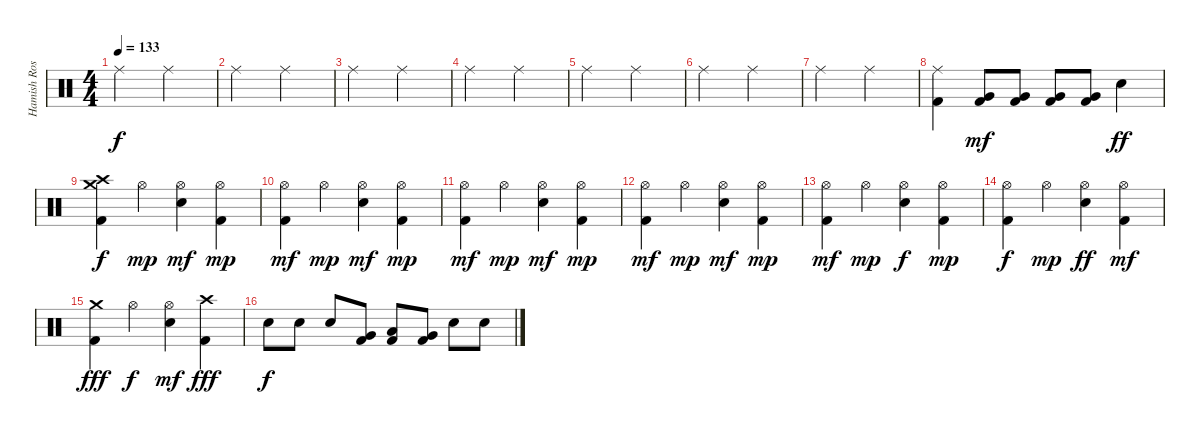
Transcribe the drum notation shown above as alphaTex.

\track ("Hamish Rosser" "Hamish Ros") {instrument percussion}
\staff {score}
\articulation defaults
\ts (4 4)
\tempo 133
\clef neutral
\ks c "Ride (middle)".2{dy f} "Ride (middle)".2
|
"Ride (middle)".2 "Ride (middle)".2 |
"Ride (middle)".2 "Ride (middle)".2 |
"Ride (middle)".2 "Ride (middle)".2 |
"Ride (middle)".2 "Ride (middle)".2 |
"Ride (middle)".2 "Ride (middle)".2 |
"Ride (middle)".2 "Ride (middle)".2 |
("Ride (middle)" "Kick (hit) 2").4 ("Very Low Tom (hit)" "Kick (hit) 2").8{dy mf} ("Very Low Tom (hit)" "Kick (hit) 2").8 ("Very Low Tom (hit)" "Kick (hit) 2").8 ("Very Low Tom (hit)" "Kick (hit) 2").8 "Electric Snare (hit)".4{dy ff} |
("Crash medium (hit)" "Crash high (hit)" "Kick (hit) 2").4{dy f} "Hi-Hat (open)".4{dy mp} ("Hi-Hat (open)" "Electric Snare (hit)").4{dy mf} ("Hi-Hat (open)" "Kick (hit) 2").4{dy mp} |
("Hi-Hat (open)" "Kick (hit) 2").4{dy mf} "Hi-Hat (open)".4{dy mp} ("Hi-Hat (open)" "Electric Snare (hit)").4{dy mf} ("Hi-Hat (open)" "Kick (hit) 2").4{dy mp} |
("Hi-Hat (open)" "Kick (hit) 2").4{dy mf} "Hi-Hat (open)".4{dy mp} ("Hi-Hat (open)" "Electric Snare (hit)").4{dy mf} ("Hi-Hat (open)" "Kick (hit) 2").4{dy mp} |
("Hi-Hat (open)" "Kick (hit) 2").4{dy mf} "Hi-Hat (open)".4{dy mp} ("Hi-Hat (open)" "Electric Snare (hit)").4{dy mf} ("Hi-Hat (open)" "Kick (hit) 2").4{dy mp} |
("Hi-Hat (open)" "Kick (hit) 2").4{dy mf} "Hi-Hat (open)".4{dy mp} ("Hi-Hat (open)" "Electric Snare (hit)").4{dy f} ("Hi-Hat (open)" "Kick (hit) 2").4{dy mp} |
("Hi-Hat (open)" "Kick (hit) 2").4{dy f} "Hi-Hat (open)".4{dy mp} ("Hi-Hat (open)" "Electric Snare (hit)").4{dy ff} ("Hi-Hat (open)" "Kick (hit) 2").4{dy mf} |
("Crash medium (hit)" "Kick (hit) 2").4{dy fff} "Hi-Hat (open)".4{dy f} ("Hi-Hat (open)" "Electric Snare (hit)").4{dy mf} ("Crash high (hit)" "Kick (hit) 2").4{dy fff} |
"Electric Snare (hit)".8{dy f} "Electric Snare (hit)".8 "Electric Snare (hit)".8 ("Very Low Tom (hit)" "Kick (hit) 2").8 ("Low Tom (hit)" "Kick (hit) 2").8 ("Very Low Tom (hit)" "Kick (hit) 2").8 "Electric Snare (hit)".8 "Electric Snare (hit)".8
